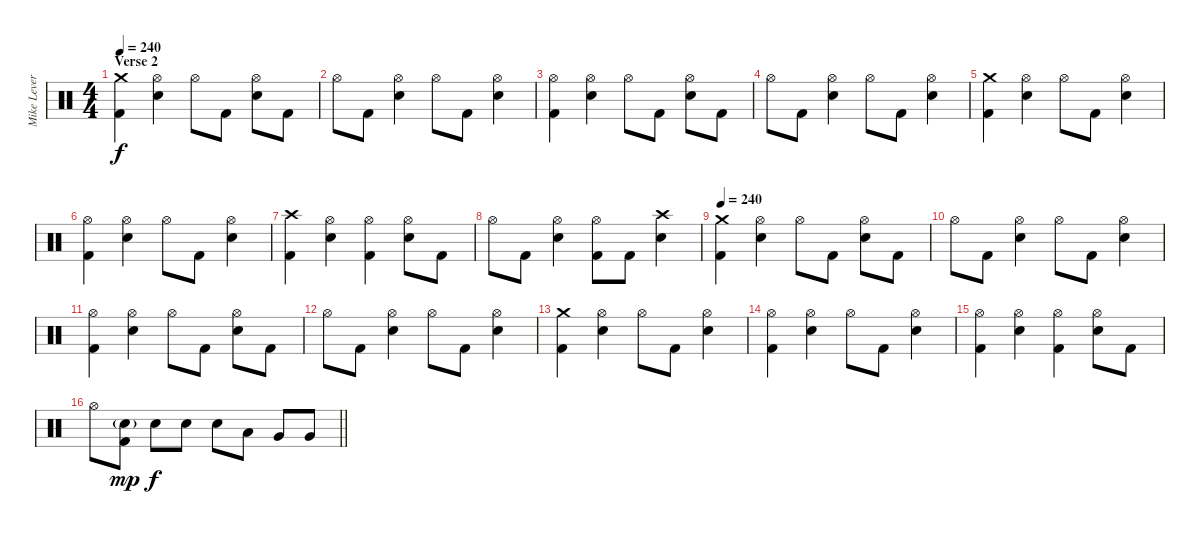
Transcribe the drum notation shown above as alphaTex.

\track ("Mike Leverence - Drums" "Mike Lever") {instrument percussion}
\staff {score}
\articulation defaults
\ts (4 4)
\section ("" "Verse 2")
\tempo 240
\clef neutral
\ks c
("Crash medium (hit)" "Kick (hit) 2").4{dy f} ("Hi-Hat (open)" "Electric Snare (hit)").4 "Hi-Hat (open)".8 "Kick (hit) 2".8 ("Hi-Hat (open)" "Electric Snare (hit)").8 "Kick (hit) 2".8 |
"Hi-Hat (open)".8 "Kick (hit) 2".8 ("Hi-Hat (open)" "Electric Snare (hit)").4 "Hi-Hat (open)".8 "Kick (hit) 2".8 ("Hi-Hat (open)" "Electric Snare (hit)").4 |
("Hi-Hat (open)" "Kick (hit) 2").4 ("Hi-Hat (open)" "Electric Snare (hit)").4 "Hi-Hat (open)".8 "Kick (hit) 2".8 ("Hi-Hat (open)" "Electric Snare (hit)").8 "Kick (hit) 2".8 |
"Hi-Hat (open)".8 "Kick (hit) 2".8 ("Hi-Hat (open)" "Electric Snare (hit)").4 "Hi-Hat (open)".8 "Kick (hit) 2".8 ("Hi-Hat (open)" "Electric Snare (hit)").4 |
("Crash medium (hit)" "Kick (hit) 2").4 ("Hi-Hat (open)" "Electric Snare (hit)").4 "Hi-Hat (open)".8 "Kick (hit) 2".8 ("Hi-Hat (open)" "Electric Snare (hit)").4 |
("Hi-Hat (open)" "Kick (hit) 2").4 ("Hi-Hat (open)" "Electric Snare (hit)").4 "Hi-Hat (open)".8 "Kick (hit) 2".8 ("Hi-Hat (open)" "Electric Snare (hit)").4 |
("Crash high (hit)" "Kick (hit) 2").4 ("Hi-Hat (open)" "Electric Snare (hit)").4 ("Hi-Hat (open)" "Kick (hit) 2").4 ("Hi-Hat (open)" "Electric Snare (hit)").8 "Kick (hit) 2".8 |
"Hi-Hat (open)".8 "Kick (hit) 2".8 ("Hi-Hat (open)" "Electric Snare (hit)").4 ("Hi-Hat (open)" "Kick (hit) 2").8 "Kick (hit) 2".8 ("Crash high (hit)" "Electric Snare (hit)").4 |
\tempo 240
("Crash medium (hit)" "Kick (hit) 2").4 ("Hi-Hat (open)" "Electric Snare (hit)").4 "Hi-Hat (open)".8 "Kick (hit) 2".8 ("Hi-Hat (open)" "Electric Snare (hit)").8 "Kick (hit) 2".8 |
"Hi-Hat (open)".8 "Kick (hit) 2".8 ("Hi-Hat (open)" "Electric Snare (hit)").4 "Hi-Hat (open)".8 "Kick (hit) 2".8 ("Hi-Hat (open)" "Electric Snare (hit)").4 |
("Hi-Hat (open)" "Kick (hit) 2").4 ("Hi-Hat (open)" "Electric Snare (hit)").4 "Hi-Hat (open)".8 "Kick (hit) 2".8 ("Hi-Hat (open)" "Electric Snare (hit)").8 "Kick (hit) 2".8 |
"Hi-Hat (open)".8 "Kick (hit) 2".8 ("Hi-Hat (open)" "Electric Snare (hit)").4 "Hi-Hat (open)".8 "Kick (hit) 2".8 ("Hi-Hat (open)" "Electric Snare (hit)").4 |
("Crash medium (hit)" "Kick (hit) 2").4 ("Hi-Hat (open)" "Electric Snare (hit)").4 "Hi-Hat (open)".8 "Kick (hit) 2".8 ("Hi-Hat (open)" "Electric Snare (hit)").4 |
("Hi-Hat (open)" "Kick (hit) 2").4 ("Hi-Hat (open)" "Electric Snare (hit)").4 "Hi-Hat (open)".8 "Kick (hit) 2".8 ("Hi-Hat (open)" "Electric Snare (hit)").4 |
("Hi-Hat (open)" "Kick (hit) 2").4 ("Hi-Hat (open)" "Electric Snare (hit)").4 ("Hi-Hat (open)" "Kick (hit) 2").4 ("Hi-Hat (open)" "Electric Snare (hit)").8 "Kick (hit) 2".8 |
\barLineRight lightlight "Hi-Hat (open)".8
("Electric Snare (hit)"{g} "Kick (hit) 2").8{dy mp} "Electric Snare (hit)".8{dy f} "Electric Snare (hit)".8 "Electric Snare (hit)".8 "Low Tom (hit)".8 "Very Low Tom (hit)".8 "Very Low Tom (hit)".8
